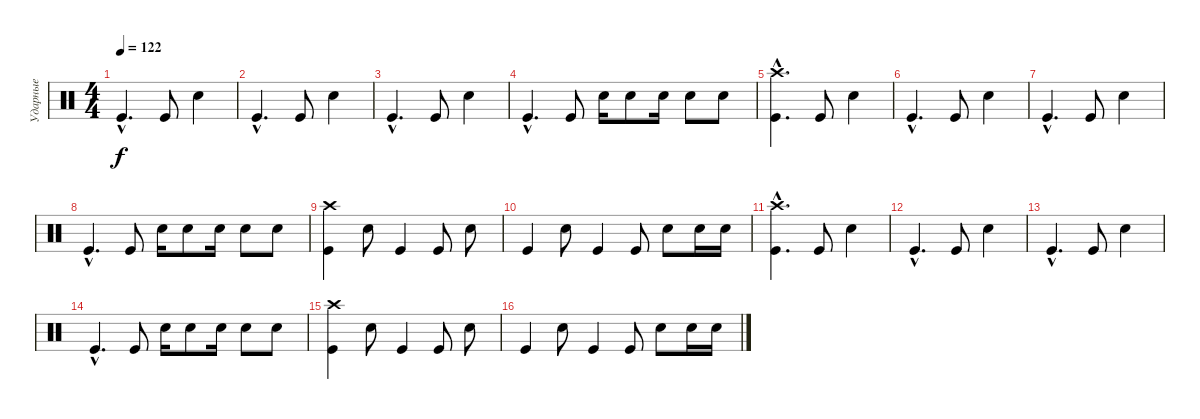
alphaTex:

\track ("Ударные" "Ударные") {instrument percussion}
\staff {score}
\articulation defaults
\ts (4 4)
\tempo 122
\clef neutral
\ks c "Kick (hit)"{hac}.4{d dy f} "Kick (hit)".8 "Electric Snare (hit)".4
|
"Kick (hit)"{hac}.4{d} "Kick (hit)".8 "Electric Snare (hit)".4 |
"Kick (hit)"{hac}.4{d} "Kick (hit)".8 "Electric Snare (hit)".4 |
"Kick (hit)"{hac}.4{d} "Kick (hit)".8 "Electric Snare (hit)".16 "Electric Snare (hit)".8 "Electric Snare (hit)".16 "Electric Snare (hit)".8 "Electric Snare (hit)".8 |
("Kick (hit)"{hac} "Crash high (hit)"{hac}).4{d} "Kick (hit)".8 "Electric Snare (hit)".4 |
"Kick (hit)"{hac}.4{d} "Kick (hit)".8 "Electric Snare (hit)".4 |
"Kick (hit)"{hac}.4{d} "Kick (hit)".8 "Electric Snare (hit)".4 |
"Kick (hit)"{hac}.4{d} "Kick (hit)".8 "Electric Snare (hit)".16 "Electric Snare (hit)".8 "Electric Snare (hit)".16 "Electric Snare (hit)".8 "Electric Snare (hit)".8 |
("Kick (hit)" "Crash high (hit)").4 "Electric Snare (hit)".8 "Kick (hit)".4 "Kick (hit)".8 "Electric Snare (hit)".8 |
"Kick (hit)".4 "Electric Snare (hit)".8 "Kick (hit)".4 "Kick (hit)".8 "Electric Snare (hit)".8 "Electric Snare (hit)".16 "Electric Snare (hit)".16 |
("Kick (hit)"{hac} "Crash high (hit)"{hac}).4{d} "Kick (hit)".8 "Electric Snare (hit)".4 |
"Kick (hit)"{hac}.4{d} "Kick (hit)".8 "Electric Snare (hit)".4 |
"Kick (hit)"{hac}.4{d} "Kick (hit)".8 "Electric Snare (hit)".4 |
"Kick (hit)"{hac}.4{d} "Kick (hit)".8 "Electric Snare (hit)".16 "Electric Snare (hit)".8 "Electric Snare (hit)".16 "Electric Snare (hit)".8 "Electric Snare (hit)".8 |
("Kick (hit)" "Crash high (hit)").4 "Electric Snare (hit)".8 "Kick (hit)".4 "Kick (hit)".8 "Electric Snare (hit)".8 |
"Kick (hit)".4 "Electric Snare (hit)".8 "Kick (hit)".4 "Kick (hit)".8 "Electric Snare (hit)".8 "Electric Snare (hit)".16 "Electric Snare (hit)".16
